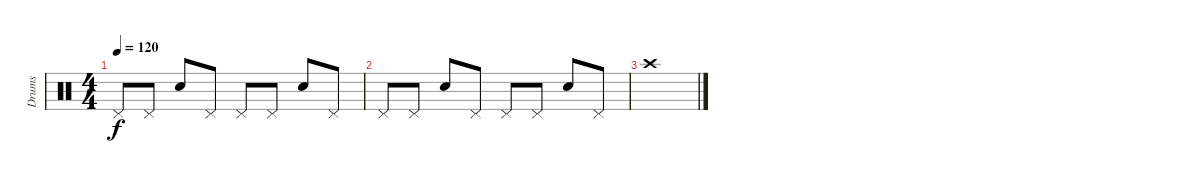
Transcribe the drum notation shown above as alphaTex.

\track ("Drums" "Drums") {instrument percussion}
\staff {score}
\articulation defaults
\ts (4 4)
\tempo 120
\clef neutral
\ks c "Pedal Hi-Hat (hit)".8{dy f} "Pedal Hi-Hat (hit)".8 "Snare (hit) 2".8 "Pedal Hi-Hat (hit)".8 "Pedal Hi-Hat (hit)".8 "Pedal Hi-Hat (hit)".8 "Snare (hit) 2".8 "Pedal Hi-Hat (hit)".8
|
"Pedal Hi-Hat (hit)".8 "Pedal Hi-Hat (hit)".8 "Snare (hit) 2".8 "Pedal Hi-Hat (hit)".8 "Pedal Hi-Hat (hit)".8 "Pedal Hi-Hat (hit)".8 "Snare (hit) 2".8 "Pedal Hi-Hat (hit)".8 |
"Crash high (hit)".1
